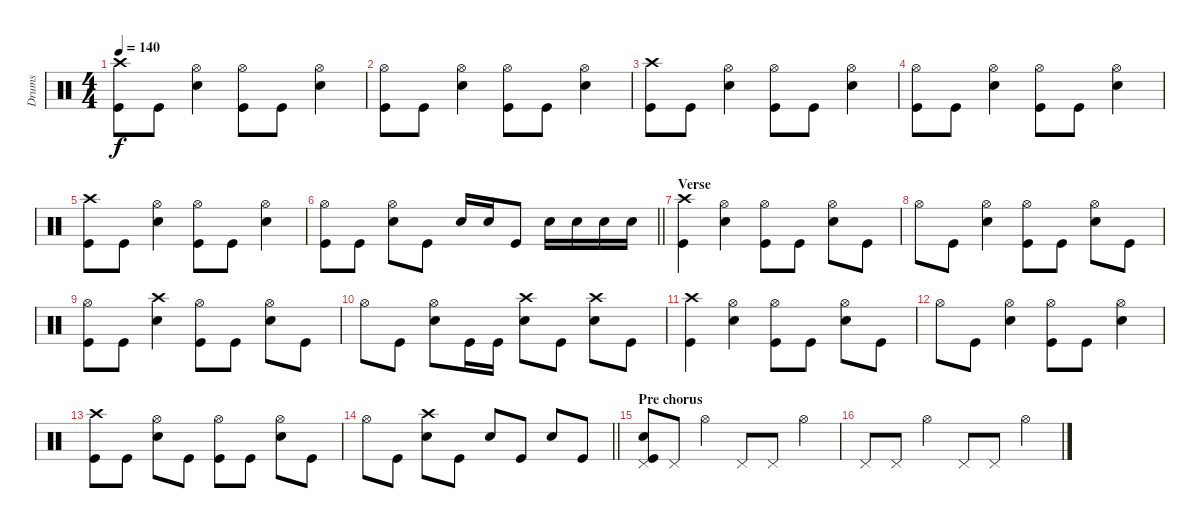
\track ("Drums" "Drums") {instrument percussion}
\staff {score}
\articulation defaults
\ts (4 4)
\tempo 140
\clef neutral
\ks c
("Crash high (hit)" "Kick (hit)").8{dy f} "Kick (hit)".8 ("Hi-Hat (open)" "Electric Snare (hit)").4 ("Hi-Hat (open)" "Kick (hit)").8 "Kick (hit)".8 ("Hi-Hat (open)" "Electric Snare (hit)").4 |
("Hi-Hat (open)" "Kick (hit)").8 "Kick (hit)".8 ("Hi-Hat (open)" "Electric Snare (hit)").4 ("Hi-Hat (open)" "Kick (hit)").8 "Kick (hit)".8 ("Hi-Hat (open)" "Electric Snare (hit)").4 |
("Crash high (hit)" "Kick (hit)").8 "Kick (hit)".8 ("Hi-Hat (open)" "Electric Snare (hit)").4 ("Hi-Hat (open)" "Kick (hit)").8 "Kick (hit)".8 ("Hi-Hat (open)" "Electric Snare (hit)").4 |
("Hi-Hat (open)" "Kick (hit)").8 "Kick (hit)".8 ("Hi-Hat (open)" "Electric Snare (hit)").4 ("Hi-Hat (open)" "Kick (hit)").8 "Kick (hit)".8 ("Hi-Hat (open)" "Electric Snare (hit)").4 |
("Crash high (hit)" "Kick (hit)").8 "Kick (hit)".8 ("Hi-Hat (open)" "Electric Snare (hit)").4 ("Hi-Hat (open)" "Kick (hit)").8 "Kick (hit)".8 ("Hi-Hat (open)" "Electric Snare (hit)").4 |
\barLineRight lightlight
("Hi-Hat (open)" "Kick (hit)").8 "Kick (hit)".8 ("Hi-Hat (open)" "Electric Snare (hit)").8 "Kick (hit)".8 "Electric Snare (hit)".16 "Electric Snare (hit)".16 "Kick (hit)".8 "Electric Snare (hit)".16 "Electric Snare (hit)".16 "Electric Snare (hit)".16 "Electric Snare (hit)".16 |
\section ("" "Verse")
("Crash high (hit)" "Kick (hit)").4 ("Hi-Hat (open)" "Electric Snare (hit)").4 ("Hi-Hat (open)" "Kick (hit)").8 "Kick (hit)".8 ("Hi-Hat (open)" "Electric Snare (hit)").8 "Kick (hit)".8 |
"Hi-Hat (open)".8 "Kick (hit)".8 ("Hi-Hat (open)" "Electric Snare (hit)").4 ("Hi-Hat (open)" "Kick (hit)").8 "Kick (hit)".8 ("Hi-Hat (open)" "Electric Snare (hit)").8 "Kick (hit)".8 |
("Hi-Hat (open)" "Kick (hit)").8 "Kick (hit)".8 ("Crash high (hit)" "Electric Snare (hit)").4 ("Hi-Hat (open)" "Kick (hit)").8 "Kick (hit)".8 ("Hi-Hat (open)" "Electric Snare (hit)").8 "Kick (hit)".8 |
"Hi-Hat (open)".8 "Kick (hit)".8 ("Hi-Hat (open)" "Electric Snare (hit)").8 "Kick (hit)".16 "Kick (hit)".16 ("Crash high (hit)" "Electric Snare (hit)").8 "Kick (hit)".8 ("Crash high (hit)" "Electric Snare (hit)").8 "Kick (hit)".8 |
("Crash high (hit)" "Kick (hit)").4 ("Hi-Hat (open)" "Electric Snare (hit)").4 ("Hi-Hat (open)" "Kick (hit)").8 "Kick (hit)".8 ("Hi-Hat (open)" "Electric Snare (hit)").8 "Kick (hit)".8 |
"Hi-Hat (open)".8 "Kick (hit)".8 ("Hi-Hat (open)" "Electric Snare (hit)").4 ("Hi-Hat (open)" "Kick (hit)").8 "Kick (hit)".8 ("Hi-Hat (open)" "Electric Snare (hit)").4 |
("Crash high (hit)" "Kick (hit)").8 "Kick (hit)".8 ("Hi-Hat (open)" "Electric Snare (hit)").8 "Kick (hit)".8 ("Hi-Hat (open)" "Kick (hit)").8 "Kick (hit)".8 ("Hi-Hat (open)" "Electric Snare (hit)").8 "Kick (hit)".8 |
\barLineRight lightlight "Hi-Hat (open)".8 "Kick (hit)".8
("Crash high (hit)" "Electric Snare (hit)").8 "Kick (hit)".8 "Electric Snare (hit)".8 "Kick (hit)".8 "Snare (hit) 2".8 "Kick (hit)".8 |
\section ("" "Pre chorus")
("Pedal Hi-Hat (hit)" "Electric Snare (hit)" "Kick (hit)").8 "Pedal Hi-Hat (hit)".8 "Hi-Hat (open)".4 "Pedal Hi-Hat (hit)".8 "Pedal Hi-Hat (hit)".8 "Hi-Hat (open)".4 |
"Pedal Hi-Hat (hit)".8 "Pedal Hi-Hat (hit)".8 "Hi-Hat (open)".4 "Pedal Hi-Hat (hit)".8 "Pedal Hi-Hat (hit)".8 "Hi-Hat (open)".4
